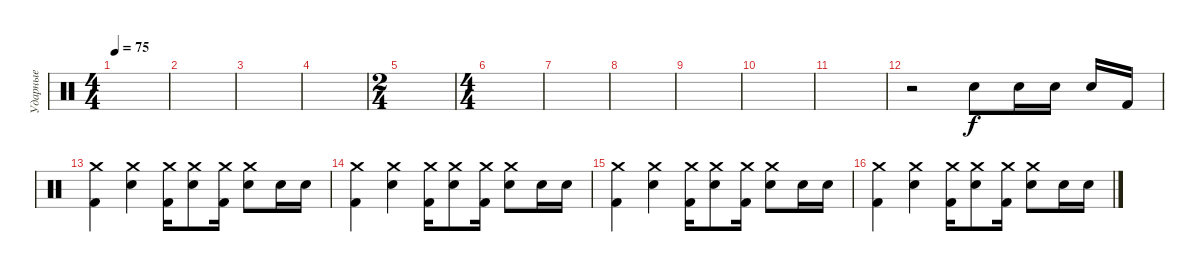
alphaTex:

\track ("Ударные" "Ударные") {instrument percussion}
\staff {score}
\articulation defaults
\ts (4 4)
\tempo 75
\clef neutral
\ks c
|
|
|
|
\ts (2 4)
|
\ts (4 4)
|
|
|
|
|
|
r.2 "Electric Snare (hit)".8 "Electric Snare (hit)".16 "Electric Snare (hit)".16 "Electric Snare (hit)".16 "Kick (hit) 2".16 |
("Kick (hit) 2" "Crash medium (hit)").4 ("Electric Snare (hit)" "Crash medium (hit)").4 ("Kick (hit) 2" "Crash medium (hit)"{x}).16 ("Electric Snare (hit)" "Crash medium (hit)").8 ("Kick (hit) 2" "Crash medium (hit)"{x}).16 ("Electric Snare (hit)" "Crash medium (hit)").8 "Electric Snare (hit)".16 "Electric Snare (hit)".16 |
("Kick (hit) 2" "Crash medium (hit)").4 ("Electric Snare (hit)" "Crash medium (hit)").4 ("Kick (hit) 2" "Crash medium (hit)"{x}).16 ("Electric Snare (hit)" "Crash medium (hit)").8 ("Kick (hit) 2" "Crash medium (hit)"{x}).16 ("Electric Snare (hit)" "Crash medium (hit)").8 "Electric Snare (hit)".16 "Electric Snare (hit)".16 |
("Kick (hit) 2" "Crash medium (hit)").4 ("Electric Snare (hit)" "Crash medium (hit)").4 ("Kick (hit) 2" "Crash medium (hit)"{x}).16 ("Electric Snare (hit)" "Crash medium (hit)").8 ("Kick (hit) 2" "Crash medium (hit)"{x}).16 ("Electric Snare (hit)" "Crash medium (hit)").8 "Electric Snare (hit)".16 "Electric Snare (hit)".16 |
("Kick (hit) 2" "Crash medium (hit)").4 ("Electric Snare (hit)" "Crash medium (hit)").4 ("Kick (hit) 2" "Crash medium (hit)"{x}).16 ("Electric Snare (hit)" "Crash medium (hit)").8 ("Kick (hit) 2" "Crash medium (hit)"{x}).16 ("Electric Snare (hit)" "Crash medium (hit)").8 "Electric Snare (hit)".16 "Electric Snare (hit)".16
